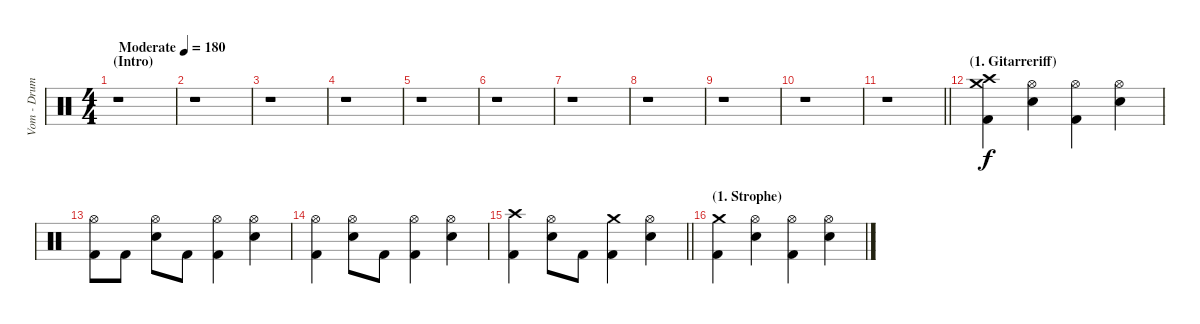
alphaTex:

\track ("Vom - Drums" "Vom - Drum") {instrument percussion}
\staff {score}
\articulation defaults
\ts (4 4)
\section ("" "(Intro)")
\tempo (180 "Moderate")
\clef neutral
\ks c
r.1{dy f} |
r.1 |
r.1 |
r.1 |
r.1 |
r.1 |
r.1 |
r.1 |
r.1 |
r.1 |
\barLineRight lightlight
r.1 |
\section ("" "(1. Gitarreriff)")
("Crash high (hit)" "Crash medium (hit)" "Kick (hit) 2").4 ("Hi-Hat (open)" "Electric Snare (hit)").4 ("Hi-Hat (open)" "Kick (hit) 2").4 ("Hi-Hat (open)" "Electric Snare (hit)").4 |
("Hi-Hat (open)" "Kick (hit) 2").8 "Kick (hit) 2".8 ("Hi-Hat (open)" "Electric Snare (hit)").8 "Kick (hit) 2".8 ("Hi-Hat (open)" "Kick (hit) 2").4 ("Hi-Hat (open)" "Electric Snare (hit)").4 |
("Hi-Hat (open)" "Kick (hit) 2").4 ("Hi-Hat (open)" "Electric Snare (hit)").8 "Kick (hit) 2".8 ("Hi-Hat (open)" "Kick (hit) 2").4 ("Hi-Hat (open)" "Electric Snare (hit)").4 |
\barLineRight lightlight
("Crash high (hit)" "Kick (hit) 2").4 ("Hi-Hat (open)" "Electric Snare (hit)").8 "Kick (hit) 2".8 ("Crash medium (hit)" "Kick (hit) 2").4 ("Hi-Hat (open)" "Electric Snare (hit)").4 |
\section ("" "(1. Strophe)")
("Crash medium (hit)" "Kick (hit) 2").4 ("Electric Snare (hit)" "Hi-Hat (open)").4 ("Kick (hit) 2" "Hi-Hat (open)").4 ("Electric Snare (hit)" "Hi-Hat (open)").4
